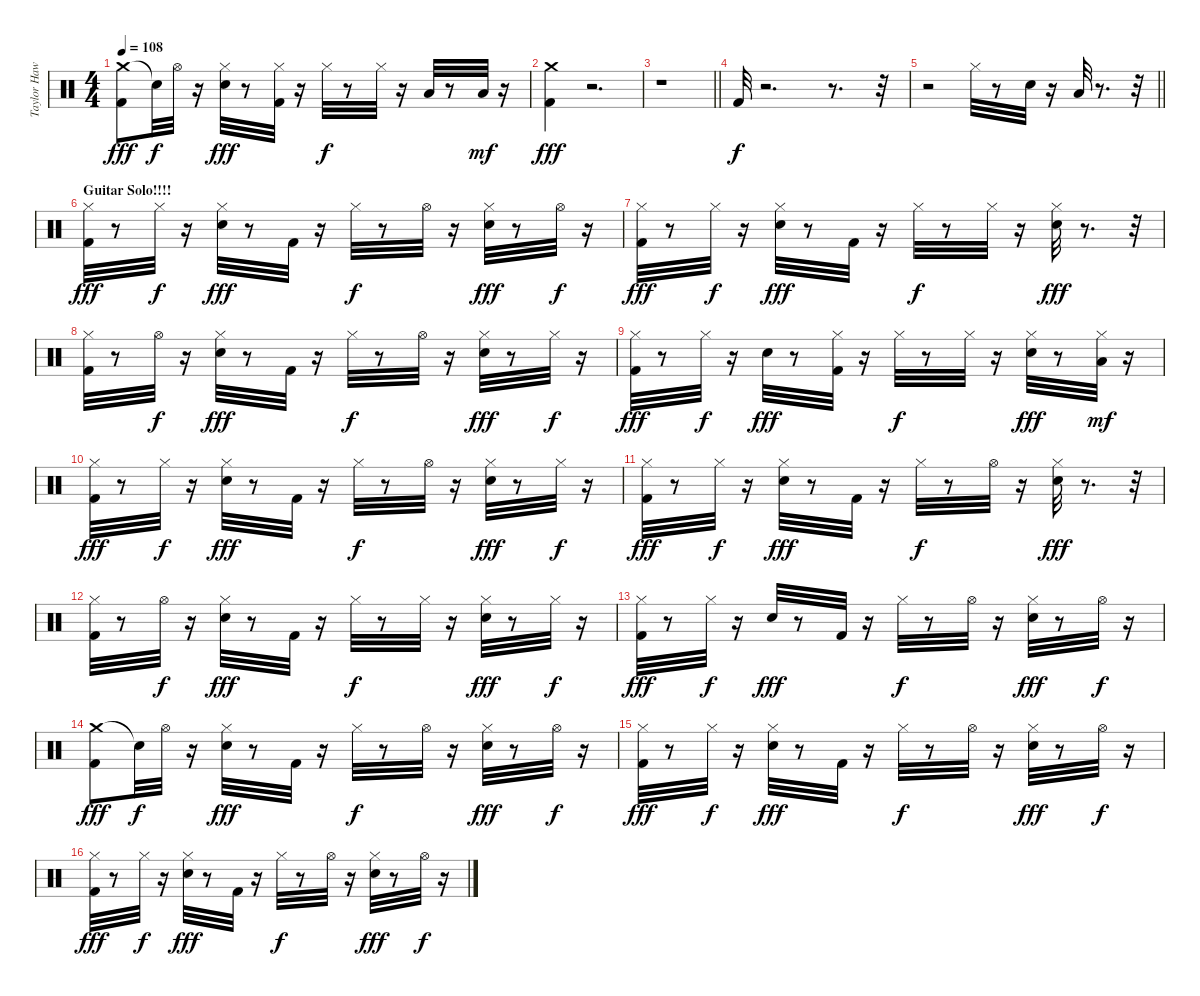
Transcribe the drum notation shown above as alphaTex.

\track ("Taylor Hawkins" "Taylor Haw") {instrument percussion}
\staff {score}
\articulation defaults
\ts (4 4)
\tempo 108
\clef neutral
\ks c
("Crash medium (hit)" "Kick (hit) 2").8{dy fff} "Snare (hit)"{t}.32{dy f} "Hi-Hat (open)".32 r.16 ("Hi-Hat (closed)" "Snare (hit) 2").32{dy fff} r.8 ("Hi-Hat (closed)" "Kick (hit) 2").32 r.16 "Hi-Hat (closed)".32{dy f} r.8 "Hi-Hat (closed)".32 r.16 "Low Tom (hit)".32 r.8 "Low Floor Tom (hit)".32{dy mf} r.16 |
("Crash medium (hit)" "Kick (hit) 2").4{dy fff} r.2{d} |
\barLineRight lightlight
r.1 |
"Kick (hit) 2".32{dy f} r.2{d} r.8{d} r.32 |
\barLineRight lightlight
r.2 "Hi-Hat (closed)".32 r.8 "Snare (hit) 2".32 r.16 "Low Floor Tom (hit)".32 r.8{d} r.32 |
\section ("" "Guitar Solo!!!!")
("Hi-Hat (closed)" "Kick (hit) 2").32{dy fff} r.8 "Hi-Hat (closed)".32{dy f} r.16 ("Hi-Hat (closed)" "Snare (hit) 2").32{dy fff} r.8 "Kick (hit) 2".32 r.16 "Hi-Hat (closed)".32{dy f} r.8 "Hi-Hat (open)".32 r.16 ("Hi-Hat (closed)" "Snare (hit) 2").32{dy fff} r.8 "Hi-Hat (open)".32{dy f} r.16 |
("Hi-Hat (closed)" "Kick (hit) 2").32{dy fff} r.8 "Hi-Hat (closed)".32{dy f} r.16 ("Hi-Hat (closed)" "Snare (hit) 2").32{dy fff} r.8 "Kick (hit) 2".32 r.16 "Hi-Hat (closed)".32{dy f} r.8 "Hi-Hat (closed)".32 r.16 ("Hi-Hat (closed)" "Snare (hit) 2").32{dy fff} r.8{d} r.32 |
("Hi-Hat (closed)" "Kick (hit) 2").32 r.8 "Hi-Hat (open)".32{dy f} r.16 ("Hi-Hat (closed)" "Snare (hit) 2").32{dy fff} r.8 "Kick (hit) 2".32 r.16 "Hi-Hat (closed)".32{dy f} r.8 "Hi-Hat (open)".32 r.16 ("Hi-Hat (closed)" "Snare (hit) 2").32{dy fff} r.8 "Hi-Hat (closed)".32{dy f} r.16 |
("Hi-Hat (closed)" "Kick (hit) 2").32{dy fff} r.8 "Hi-Hat (closed)".32{dy f} r.16 "Snare (hit) 2".32{dy fff} r.8 ("Hi-Hat (closed)" "Kick (hit) 2").32 r.16 "Hi-Hat (closed)".32{dy f} r.8 "Hi-Hat (closed)".32 r.16 ("Hi-Hat (closed)" "Snare (hit) 2").32{dy fff} r.8 ("Low Tom (hit)" "Hi-Hat (closed)").32{dy mf} r.16 |
("Hi-Hat (closed)" "Kick (hit) 2").32{dy fff} r.8 "Hi-Hat (closed)".32{dy f} r.16 ("Hi-Hat (closed)" "Snare (hit) 2").32{dy fff} r.8 "Kick (hit) 2".32 r.16 "Hi-Hat (closed)".32{dy f} r.8 "Hi-Hat (open)".32 r.16 ("Hi-Hat (closed)" "Snare (hit) 2").32{dy fff} r.8 "Hi-Hat (closed)".32{dy f} r.16 |
("Hi-Hat (closed)" "Kick (hit) 2").32{dy fff} r.8 "Hi-Hat (closed)".32{dy f} r.16 ("Hi-Hat (closed)" "Snare (hit) 2").32{dy fff} r.8 "Kick (hit) 2".32 r.16 "Hi-Hat (closed)".32{dy f} r.8 "Hi-Hat (open)".32 r.16 ("Hi-Hat (closed)" "Snare (hit) 2").32{dy fff} r.8{d} r.32 |
("Hi-Hat (closed)" "Kick (hit) 2").32 r.8 "Hi-Hat (open)".32{dy f} r.16 ("Hi-Hat (closed)" "Snare (hit) 2").32{dy fff} r.8 "Kick (hit) 2".32 r.16 "Hi-Hat (closed)".32{dy f} r.8 "Hi-Hat (closed)".32 r.16 ("Hi-Hat (closed)" "Snare (hit) 2").32{dy fff} r.8 "Hi-Hat (closed)".32{dy f} r.16 |
("Hi-Hat (closed)" "Kick (hit) 2").32{dy fff} r.8 "Hi-Hat (closed)".32{dy f} r.16 "Snare (hit) 2".32{dy fff} r.8 "Kick (hit) 2".32 r.16 "Hi-Hat (closed)".32{dy f} r.8 "Hi-Hat (open)".32 r.16 ("Hi-Hat (closed)" "Snare (hit) 2").32{dy fff} r.8 "Hi-Hat (open)".32{dy f} r.16 |
("Crash medium (hit)" "Kick (hit) 2").8{dy fff} "Snare (hit)"{t}.32{dy f} "Hi-Hat (open)".32 r.16 ("Hi-Hat (closed)" "Snare (hit) 2").32{dy fff} r.8 "Kick (hit) 2".32 r.16 "Hi-Hat (closed)".32{dy f} r.8 "Hi-Hat (open)".32 r.16 ("Hi-Hat (closed)" "Snare (hit) 2").32{dy fff} r.8 "Hi-Hat (open)".32{dy f} r.16 |
("Hi-Hat (closed)" "Kick (hit) 2").32{dy fff} r.8 "Hi-Hat (closed)".32{dy f} r.16 ("Hi-Hat (closed)" "Snare (hit) 2").32{dy fff} r.8 "Kick (hit) 2".32 r.16 "Hi-Hat (closed)".32{dy f} r.8 "Hi-Hat (open)".32 r.16 ("Hi-Hat (closed)" "Snare (hit) 2").32{dy fff} r.8 "Hi-Hat (open)".32{dy f} r.16 |
("Hi-Hat (closed)" "Kick (hit) 2").32{dy fff} r.8 "Hi-Hat (closed)".32{dy f} r.16 ("Hi-Hat (closed)" "Snare (hit) 2").32{dy fff} r.8 "Kick (hit) 2".32 r.16 "Hi-Hat (closed)".32{dy f} r.8 "Hi-Hat (open)".32 r.16 ("Hi-Hat (closed)" "Snare (hit) 2").32{dy fff} r.8 "Hi-Hat (open)".32{dy f} r.16
